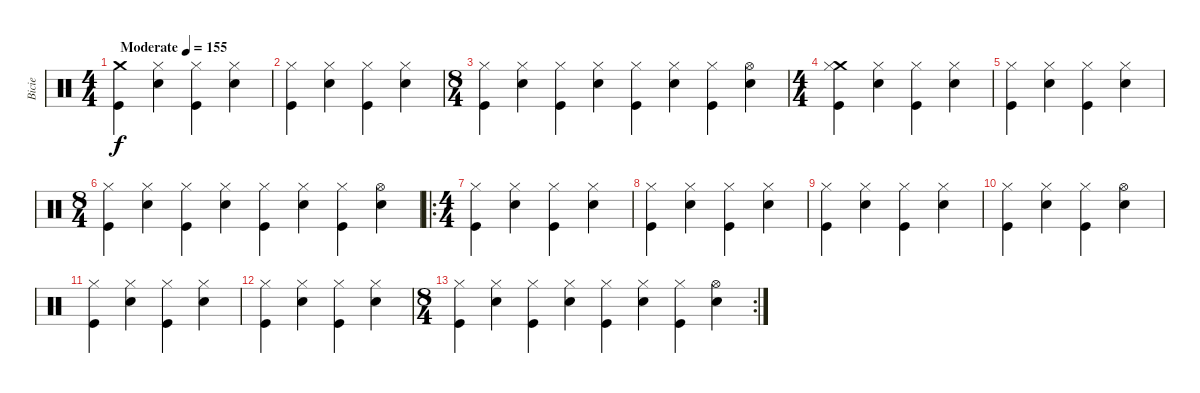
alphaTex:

\track ("Bicie" "Bicie") {instrument percussion}
\staff {score}
\articulation defaults
\ts (4 4)
\tempo (155 "Moderate")
\clef neutral
\ks c
("Crash medium (hit)" "Kick (hit)").4{dy f} ("Hi-Hat (closed)" "Snare (hit) 2").4 ("Hi-Hat (closed)" "Kick (hit)").4 ("Hi-Hat (closed)" "Snare (hit) 2").4 |
("Hi-Hat (closed)" "Kick (hit)").4 ("Hi-Hat (closed)" "Snare (hit) 2").4 ("Hi-Hat (closed)" "Kick (hit)").4 ("Hi-Hat (closed)" "Snare (hit) 2").4 |
\ts (8 4)
("Hi-Hat (closed)" "Kick (hit)").4 ("Hi-Hat (closed)" "Snare (hit) 2").4 ("Hi-Hat (closed)" "Kick (hit)").4 ("Hi-Hat (closed)" "Snare (hit) 2").4 ("Hi-Hat (closed)" "Kick (hit)").4 ("Hi-Hat (closed)" "Snare (hit) 2").4 ("Hi-Hat (closed)" "Kick (hit)").4 ("Hi-Hat (open)" "Snare (hit) 2").4 |
\ts (4 4)
("Crash medium (hit)" "Hi-Hat (closed)" "Kick (hit)").4 ("Hi-Hat (closed)" "Snare (hit) 2").4 ("Hi-Hat (closed)" "Kick (hit)").4 ("Hi-Hat (closed)" "Snare (hit) 2").4 |
("Hi-Hat (closed)" "Kick (hit)").4 ("Hi-Hat (closed)" "Snare (hit) 2").4 ("Hi-Hat (closed)" "Kick (hit)").4 ("Hi-Hat (closed)" "Snare (hit) 2").4 |
\ts (8 4)
("Hi-Hat (closed)" "Kick (hit)").4 ("Hi-Hat (closed)" "Snare (hit) 2").4 ("Hi-Hat (closed)" "Kick (hit)").4 ("Hi-Hat (closed)" "Snare (hit) 2").4 ("Hi-Hat (closed)" "Kick (hit)").4 ("Hi-Hat (closed)" "Snare (hit) 2").4 ("Hi-Hat (closed)" "Kick (hit)").4 ("Hi-Hat (open)" "Snare (hit) 2").4 |
\ro
\ts (4 4)
("Hi-Hat (closed)" "Kick (hit)").4 ("Hi-Hat (closed)" "Snare (hit) 2").4 ("Hi-Hat (closed)" "Kick (hit)").4 ("Hi-Hat (closed)" "Snare (hit) 2").4 |
("Hi-Hat (closed)" "Kick (hit)").4 ("Hi-Hat (closed)" "Snare (hit) 2").4 ("Hi-Hat (closed)" "Kick (hit)").4 ("Hi-Hat (closed)" "Snare (hit) 2").4 |
("Hi-Hat (closed)" "Kick (hit)").4 ("Hi-Hat (closed)" "Snare (hit) 2").4 ("Hi-Hat (closed)" "Kick (hit)").4 ("Hi-Hat (closed)" "Snare (hit) 2").4 |
("Hi-Hat (closed)" "Kick (hit)").4 ("Hi-Hat (closed)" "Snare (hit) 2").4 ("Hi-Hat (closed)" "Kick (hit)").4 ("Hi-Hat (open)" "Snare (hit) 2").4 |
("Hi-Hat (closed)" "Kick (hit)").4 ("Hi-Hat (closed)" "Snare (hit) 2").4 ("Hi-Hat (closed)" "Kick (hit)").4 ("Hi-Hat (closed)" "Snare (hit) 2").4 |
("Hi-Hat (closed)" "Kick (hit)").4 ("Hi-Hat (closed)" "Snare (hit) 2").4 ("Hi-Hat (closed)" "Kick (hit)").4 ("Hi-Hat (closed)" "Snare (hit) 2").4 |
\rc 2
\ts (8 4)
("Hi-Hat (closed)" "Kick (hit)").4 ("Hi-Hat (closed)" "Snare (hit) 2").4 ("Hi-Hat (closed)" "Kick (hit)").4 ("Hi-Hat (closed)" "Snare (hit) 2").4 ("Hi-Hat (closed)" "Kick (hit)").4 ("Hi-Hat (closed)" "Snare (hit) 2").4 ("Hi-Hat (closed)" "Kick (hit)").4 ("Hi-Hat (open)" "Snare (hit) 2").4
